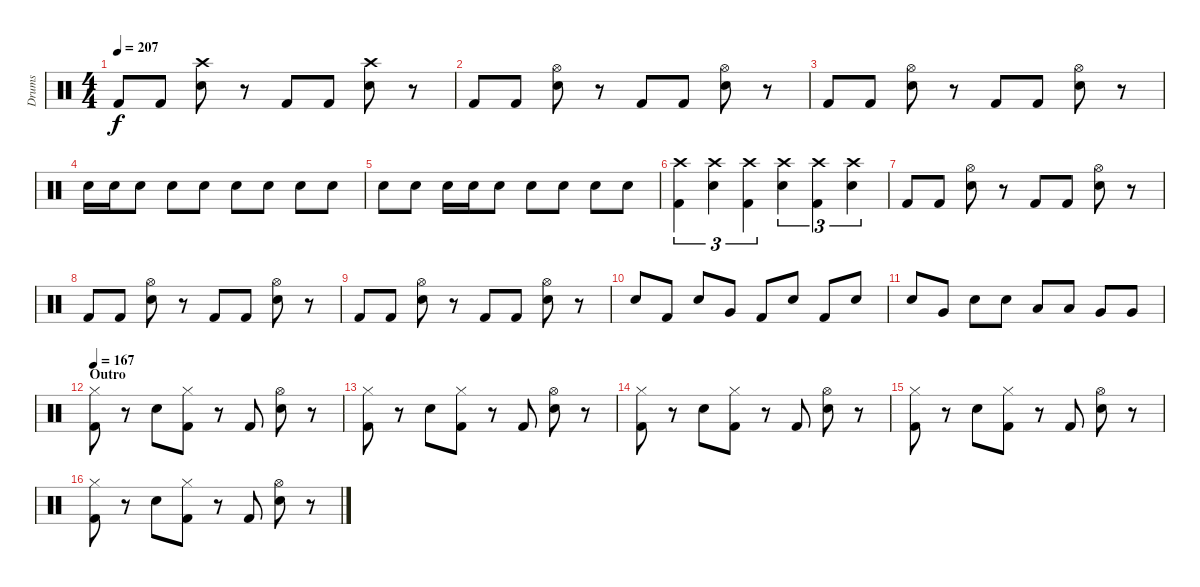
\track ("Drums" "Drums") {instrument percussion}
\staff {score}
\articulation defaults
\ts (4 4)
\tempo 207
\clef neutral
\ks c "Kick (hit) 2".8{dy f} "Kick (hit) 2".8
("Crash high (hit)" "Snare (hit) 2").8 r.8 "Kick (hit) 2".8 "Kick (hit) 2".8 ("Crash high (hit)" "Snare (hit) 2").8 r.8 |
"Kick (hit) 2".8 "Kick (hit) 2".8 ("Hi-Hat (open)" "Snare (hit) 2").8 r.8 "Kick (hit) 2".8 "Kick (hit) 2".8 ("Hi-Hat (open)" "Snare (hit) 2").8 r.8 |
"Kick (hit) 2".8 "Kick (hit) 2".8 ("Hi-Hat (open)" "Snare (hit) 2").8 r.8 "Kick (hit) 2".8 "Kick (hit) 2".8 ("Hi-Hat (open)" "Snare (hit) 2").8 r.8 |
"Snare (hit) 2".16 "Snare (hit) 2".16 "Snare (hit) 2".8 "Snare (hit) 2".8 "Snare (hit) 2".8 "Snare (hit) 2".8 "Snare (hit) 2".8 "Snare (hit) 2".8 "Snare (hit) 2".8 |
"Snare (hit) 2".8 "Snare (hit) 2".8 "Snare (hit) 2".16 "Snare (hit) 2".16 "Snare (hit) 2".8 "Snare (hit) 2".8 "Snare (hit) 2".8 "Snare (hit) 2".8 "Snare (hit) 2".8 |
("Crash high (hit)" "Kick (hit) 2").4{tu (3 2)} ("Crash high (hit)" "Snare (hit) 2").4{tu (3 2)} ("Crash high (hit)" "Kick (hit) 2").4{tu (3 2)} ("Crash high (hit)" "Snare (hit) 2").4{tu (3 2)} ("Crash high (hit)" "Kick (hit) 2").4{tu (3 2)} ("Crash high (hit)" "Snare (hit) 2").4{tu (3 2)} |
"Kick (hit) 2".8 "Kick (hit) 2".8 ("Hi-Hat (open)" "Snare (hit) 2").8 r.8 "Kick (hit) 2".8 "Kick (hit) 2".8 ("Hi-Hat (open)" "Snare (hit) 2").8 r.8 |
"Kick (hit) 2".8 "Kick (hit) 2".8 ("Hi-Hat (open)" "Snare (hit) 2").8 r.8 "Kick (hit) 2".8 "Kick (hit) 2".8 ("Hi-Hat (open)" "Snare (hit) 2").8 r.8 |
"Kick (hit) 2".8 "Kick (hit) 2".8 ("Hi-Hat (open)" "Snare (hit) 2").8 r.8 "Kick (hit) 2".8 "Kick (hit) 2".8 ("Hi-Hat (open)" "Snare (hit) 2").8 r.8 |
"Snare (hit) 2".8 "Kick (hit) 2".8 "Snare (hit) 2".8 "Very Low Tom (hit)".8 "Kick (hit) 2".8 "Snare (hit) 2".8 "Kick (hit) 2".8 "Snare (hit) 2".8 |
"Snare (hit) 2".8 "Very Low Tom (hit)".8 "Snare (hit) 2".8 "Snare (hit) 2".8 "Low Tom (hit)".8 "Low Tom (hit)".8 "Very Low Tom (hit)".8 "Very Low Tom (hit)".8 |
\section ("" "Outro")
\tempo 167
("Hi-Hat (closed)" "Kick (hit) 2").8 r.8 "Snare (hit) 2".8 ("Hi-Hat (closed)" "Kick (hit) 2").8 r.8 "Kick (hit) 2".8 ("Hi-Hat (open)" "Snare (hit) 2").8 r.8 |
("Hi-Hat (closed)" "Kick (hit) 2").8 r.8 "Snare (hit) 2".8 ("Hi-Hat (closed)" "Kick (hit) 2").8 r.8 "Kick (hit) 2".8 ("Hi-Hat (open)" "Snare (hit) 2").8 r.8 |
("Hi-Hat (closed)" "Kick (hit) 2").8 r.8 "Snare (hit) 2".8 ("Hi-Hat (closed)" "Kick (hit) 2").8 r.8 "Kick (hit) 2".8 ("Hi-Hat (open)" "Snare (hit) 2").8 r.8 |
("Hi-Hat (closed)" "Kick (hit) 2").8 r.8 "Snare (hit) 2".8 ("Hi-Hat (closed)" "Kick (hit) 2").8 r.8 "Kick (hit) 2".8 ("Hi-Hat (open)" "Snare (hit) 2").8 r.8 |
("Hi-Hat (closed)" "Kick (hit) 2").8 r.8 "Snare (hit) 2".8 ("Hi-Hat (closed)" "Kick (hit) 2").8 r.8 "Kick (hit) 2".8 ("Hi-Hat (open)" "Snare (hit) 2").8 r.8
